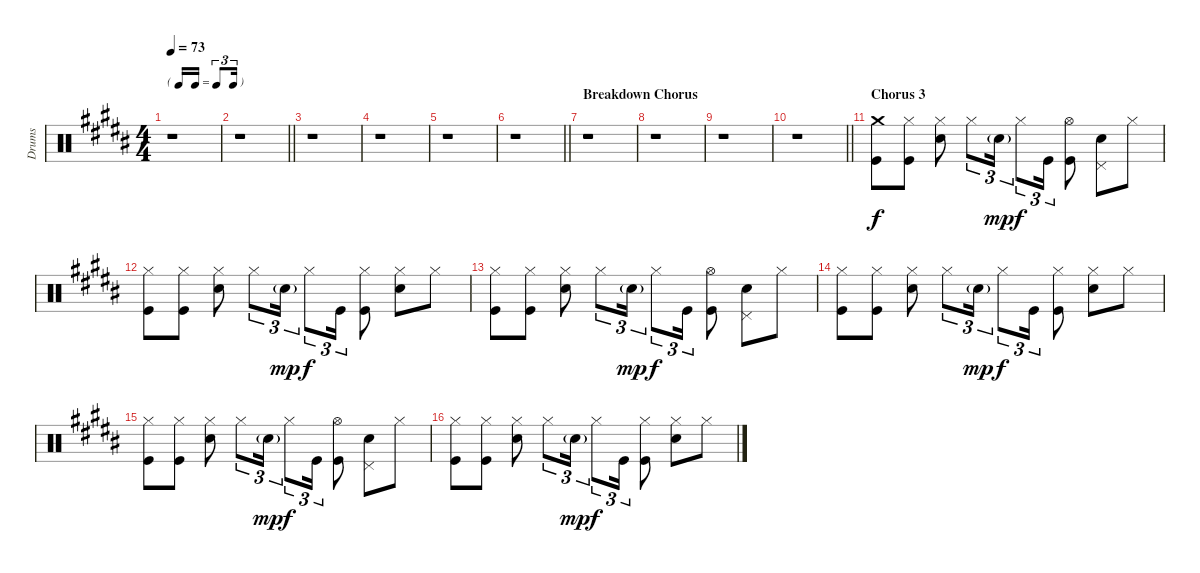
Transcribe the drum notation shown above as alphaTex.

\track ("Drums" "Drums") {instrument percussion}
\staff {score}
\articulation defaults
\ts (4 4)
\tf triplet16th
\tempo 73
\clef neutral
\ks b
r.1{dy f} |
\barLineRight lightlight
r.1 |
r.1 |
r.1 |
r.1 |
\barLineRight lightlight
r.1 |
\section ("" "Breakdown Chorus")
r.1 |
r.1 |
r.1 |
\barLineRight lightlight
r.1 |
\section ("" "Chorus 3")
("Crash medium (hit)" "Kick (hit)").8 ("Hi-Hat (closed)" "Kick (hit)").8 ("Hi-Hat (closed)" "Electric Snare (hit)").8 "Hi-Hat (closed)".8{tu (3 2)} "Electric Snare (hit)"{g}.16{tu (3 2) dy mp} "Hi-Hat (closed)".8{tu (3 2) dy f} "Kick (hit)".16{tu (3 2)} ("Hi-Hat (open)" "Kick (hit)").8 ("Pedal Hi-Hat (hit)" "Electric Snare (hit)").8 "Hi-Hat (closed)".8 |
("Hi-Hat (closed)" "Kick (hit)").8 ("Hi-Hat (closed)" "Kick (hit)").8 ("Hi-Hat (closed)" "Electric Snare (hit)").8 "Hi-Hat (closed)".8{tu (3 2)} "Electric Snare (hit)"{g}.16{tu (3 2) dy mp} "Hi-Hat (closed)".8{tu (3 2) dy f} "Kick (hit)".16{tu (3 2)} ("Hi-Hat (closed)" "Kick (hit)").8 ("Hi-Hat (closed)" "Electric Snare (hit)").8 "Hi-Hat (closed)".8 |
("Hi-Hat (closed)" "Kick (hit)").8 ("Hi-Hat (closed)" "Kick (hit)").8 ("Hi-Hat (closed)" "Electric Snare (hit)").8 "Hi-Hat (closed)".8{tu (3 2)} "Electric Snare (hit)"{g}.16{tu (3 2) dy mp} "Hi-Hat (closed)".8{tu (3 2) dy f} "Kick (hit)".16{tu (3 2)} ("Hi-Hat (open)" "Kick (hit)").8 ("Pedal Hi-Hat (hit)" "Electric Snare (hit)").8 "Hi-Hat (closed)".8 |
("Hi-Hat (closed)" "Kick (hit)").8 ("Hi-Hat (closed)" "Kick (hit)").8 ("Hi-Hat (closed)" "Electric Snare (hit)").8 "Hi-Hat (closed)".8{tu (3 2)} "Electric Snare (hit)"{g}.16{tu (3 2) dy mp} "Hi-Hat (closed)".8{tu (3 2) dy f} "Kick (hit)".16{tu (3 2)} ("Hi-Hat (closed)" "Kick (hit)").8 ("Hi-Hat (closed)" "Electric Snare (hit)").8 "Hi-Hat (closed)".8 |
("Hi-Hat (closed)" "Kick (hit)").8 ("Hi-Hat (closed)" "Kick (hit)").8 ("Hi-Hat (closed)" "Electric Snare (hit)").8 "Hi-Hat (closed)".8{tu (3 2)} "Electric Snare (hit)"{g}.16{tu (3 2) dy mp} "Hi-Hat (closed)".8{tu (3 2) dy f} "Kick (hit)".16{tu (3 2)} ("Hi-Hat (open)" "Kick (hit)").8 ("Pedal Hi-Hat (hit)" "Electric Snare (hit)").8 "Hi-Hat (closed)".8 |
("Hi-Hat (closed)" "Kick (hit)").8 ("Hi-Hat (closed)" "Kick (hit)").8 ("Hi-Hat (closed)" "Electric Snare (hit)").8 "Hi-Hat (closed)".8{tu (3 2)} "Electric Snare (hit)"{g}.16{tu (3 2) dy mp} "Hi-Hat (closed)".8{tu (3 2) dy f} "Kick (hit)".16{tu (3 2)} ("Hi-Hat (closed)" "Kick (hit)").8 ("Hi-Hat (closed)" "Electric Snare (hit)").8 "Hi-Hat (closed)".8
